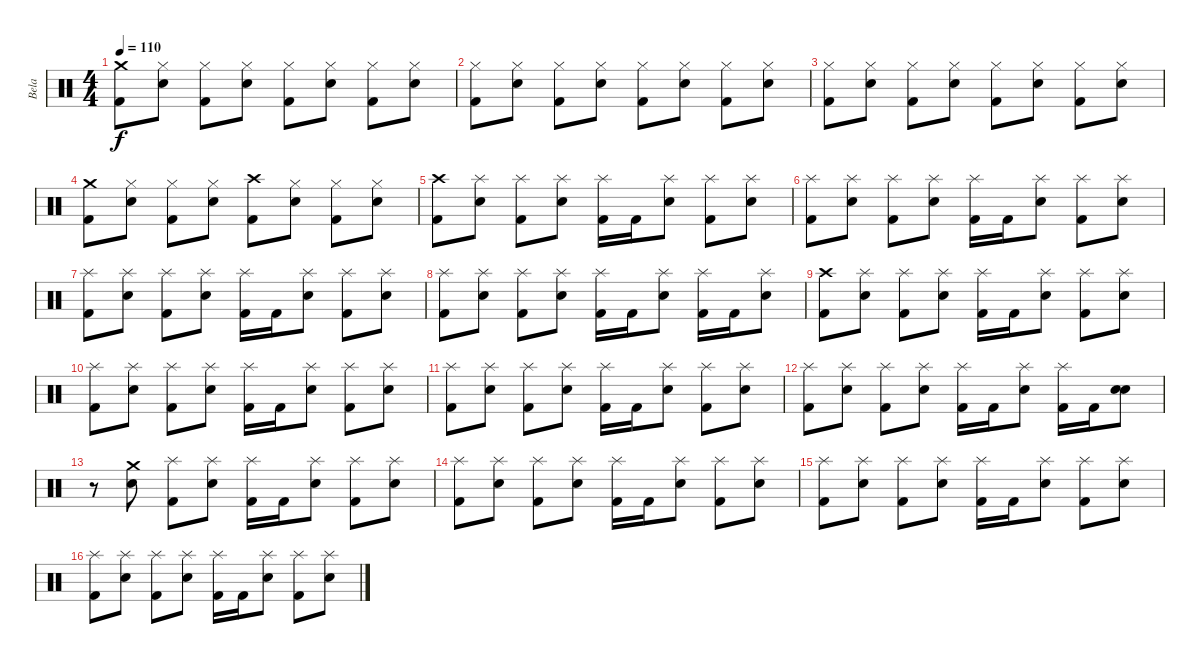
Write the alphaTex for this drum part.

\track ("Bela " "Bela ") {instrument percussion}
\staff {score}
\articulation defaults
\ts (4 4)
\tempo 110
\clef neutral
\ks c
("Crash medium (hit)" "Kick (hit) 2").8{dy f} ("Hi-Hat (closed)" "Electric Snare (hit)").8 ("Hi-Hat (closed)" "Kick (hit) 2").8 ("Hi-Hat (closed)" "Electric Snare (hit)").8 ("Hi-Hat (closed)" "Kick (hit) 2").8 ("Hi-Hat (closed)" "Electric Snare (hit)").8 ("Hi-Hat (closed)" "Kick (hit) 2").8 ("Hi-Hat (closed)" "Electric Snare (hit)").8 |
("Hi-Hat (closed)" "Kick (hit) 2").8 ("Hi-Hat (closed)" "Electric Snare (hit)").8 ("Hi-Hat (closed)" "Kick (hit) 2").8 ("Hi-Hat (closed)" "Electric Snare (hit)").8 ("Hi-Hat (closed)" "Kick (hit) 2").8 ("Hi-Hat (closed)" "Electric Snare (hit)").8 ("Hi-Hat (closed)" "Kick (hit) 2").8 ("Hi-Hat (closed)" "Electric Snare (hit)").8 |
("Hi-Hat (closed)" "Kick (hit) 2").8 ("Hi-Hat (closed)" "Electric Snare (hit)").8 ("Hi-Hat (closed)" "Kick (hit) 2").8 ("Hi-Hat (closed)" "Electric Snare (hit)").8 ("Hi-Hat (closed)" "Kick (hit) 2").8 ("Hi-Hat (closed)" "Electric Snare (hit)").8 ("Hi-Hat (closed)" "Kick (hit) 2").8 ("Hi-Hat (closed)" "Electric Snare (hit)").8 |
("Crash medium (hit)" "Kick (hit) 2").8 ("Hi-Hat (closed)" "Electric Snare (hit)").8 ("Hi-Hat (closed)" "Kick (hit) 2").8 ("Hi-Hat (closed)" "Electric Snare (hit)").8 ("Crash high (hit)" "Kick (hit) 2").8 ("Hi-Hat (closed)" "Electric Snare (hit)").8 ("Hi-Hat (closed)" "Kick (hit) 2").8 ("Hi-Hat (closed)" "Electric Snare (hit)").8 |
("Crash high (hit)" "Kick (hit) 2").8 ("Splash (hit)" "Electric Snare (hit)").8 ("Splash (hit)" "Kick (hit) 2").8 ("Splash (hit)" "Electric Snare (hit)").8 ("Splash (hit)" "Kick (hit) 2").16 "Kick (hit) 2".16 ("Splash (hit)" "Electric Snare (hit)").8 ("Splash (hit)" "Kick (hit) 2").8 ("Splash (hit)" "Electric Snare (hit)").8 |
("Splash (hit)" "Kick (hit) 2").8 ("Splash (hit)" "Electric Snare (hit)").8 ("Splash (hit)" "Kick (hit) 2").8 ("Splash (hit)" "Electric Snare (hit)").8 ("Splash (hit)" "Kick (hit) 2").16 "Kick (hit) 2".16 ("Splash (hit)" "Electric Snare (hit)").8 ("Splash (hit)" "Kick (hit) 2").8 ("Splash (hit)" "Electric Snare (hit)").8 |
("Splash (hit)" "Kick (hit) 2").8 ("Splash (hit)" "Electric Snare (hit)").8 ("Splash (hit)" "Kick (hit) 2").8 ("Splash (hit)" "Electric Snare (hit)").8 ("Splash (hit)" "Kick (hit) 2").16 "Kick (hit) 2".16 ("Splash (hit)" "Electric Snare (hit)").8 ("Splash (hit)" "Kick (hit) 2").8 ("Splash (hit)" "Electric Snare (hit)").8 |
("Splash (hit)" "Kick (hit) 2").8 ("Splash (hit)" "Electric Snare (hit)").8 ("Splash (hit)" "Kick (hit) 2").8 ("Splash (hit)" "Electric Snare (hit)").8 ("Splash (hit)" "Kick (hit) 2").16 "Kick (hit) 2".16 ("Splash (hit)" "Electric Snare (hit)").8 ("Splash (hit)" "Kick (hit) 2").16 "Kick (hit) 2".16 ("Splash (hit)" "Electric Snare (hit)").8 |
("Crash high (hit)" "Kick (hit) 2").8 ("Splash (hit)" "Electric Snare (hit)").8 ("Splash (hit)" "Kick (hit) 2").8 ("Splash (hit)" "Electric Snare (hit)").8 ("Splash (hit)" "Kick (hit) 2").16 "Kick (hit) 2".16 ("Splash (hit)" "Electric Snare (hit)").8 ("Splash (hit)" "Kick (hit) 2").8 ("Splash (hit)" "Electric Snare (hit)").8 |
("Splash (hit)" "Kick (hit) 2").8 ("Splash (hit)" "Electric Snare (hit)").8 ("Splash (hit)" "Kick (hit) 2").8 ("Splash (hit)" "Electric Snare (hit)").8 ("Splash (hit)" "Kick (hit) 2").16 "Kick (hit) 2".16 ("Splash (hit)" "Electric Snare (hit)").8 ("Splash (hit)" "Kick (hit) 2").8 ("Splash (hit)" "Electric Snare (hit)").8 |
("Splash (hit)" "Kick (hit) 2").8 ("Splash (hit)" "Electric Snare (hit)").8 ("Splash (hit)" "Kick (hit) 2").8 ("Splash (hit)" "Electric Snare (hit)").8 ("Splash (hit)" "Kick (hit) 2").16 "Kick (hit) 2".16 ("Splash (hit)" "Electric Snare (hit)").8 ("Splash (hit)" "Kick (hit) 2").8 ("Splash (hit)" "Electric Snare (hit)").8 |
("Splash (hit)" "Kick (hit) 2").8 ("Splash (hit)" "Electric Snare (hit)").8 ("Splash (hit)" "Kick (hit) 2").8 ("Splash (hit)" "Electric Snare (hit)").8 ("Splash (hit)" "Kick (hit) 2").16 "Kick (hit) 2".16 ("Splash (hit)" "Electric Snare (hit)").8 ("Splash (hit)" "Kick (hit) 2").16 "Kick (hit) 2".16 ("Electric Snare (hit)" "Electric Snare (hit)").8 |
r.8 ("Crash medium (hit)" "Electric Snare (hit)").8 ("Splash (hit)" "Kick (hit) 2").8 ("Splash (hit)" "Electric Snare (hit)").8 ("Splash (hit)" "Kick (hit) 2").16 "Kick (hit) 2".16 ("Splash (hit)" "Electric Snare (hit)").8 ("Splash (hit)" "Kick (hit) 2").8 ("Splash (hit)" "Electric Snare (hit)").8 |
("Splash (hit)" "Kick (hit) 2").8 ("Splash (hit)" "Electric Snare (hit)").8 ("Splash (hit)" "Kick (hit) 2").8 ("Splash (hit)" "Electric Snare (hit)").8 ("Splash (hit)" "Kick (hit) 2").16 "Kick (hit) 2".16 ("Splash (hit)" "Electric Snare (hit)").8 ("Splash (hit)" "Kick (hit) 2").8 ("Splash (hit)" "Electric Snare (hit)").8 |
("Splash (hit)" "Kick (hit) 2").8 ("Splash (hit)" "Electric Snare (hit)").8 ("Splash (hit)" "Kick (hit) 2").8 ("Splash (hit)" "Electric Snare (hit)").8 ("Splash (hit)" "Kick (hit) 2").16 "Kick (hit) 2".16 ("Splash (hit)" "Electric Snare (hit)").8 ("Splash (hit)" "Kick (hit) 2").8 ("Splash (hit)" "Electric Snare (hit)").8 |
("Splash (hit)" "Kick (hit) 2").8 ("Splash (hit)" "Electric Snare (hit)").8 ("Splash (hit)" "Kick (hit) 2").8 ("Splash (hit)" "Electric Snare (hit)").8 ("Splash (hit)" "Kick (hit) 2").16 "Kick (hit) 2".16 ("Splash (hit)" "Electric Snare (hit)").8 ("Splash (hit)" "Kick (hit) 2").8 ("Splash (hit)" "Electric Snare (hit)").8
